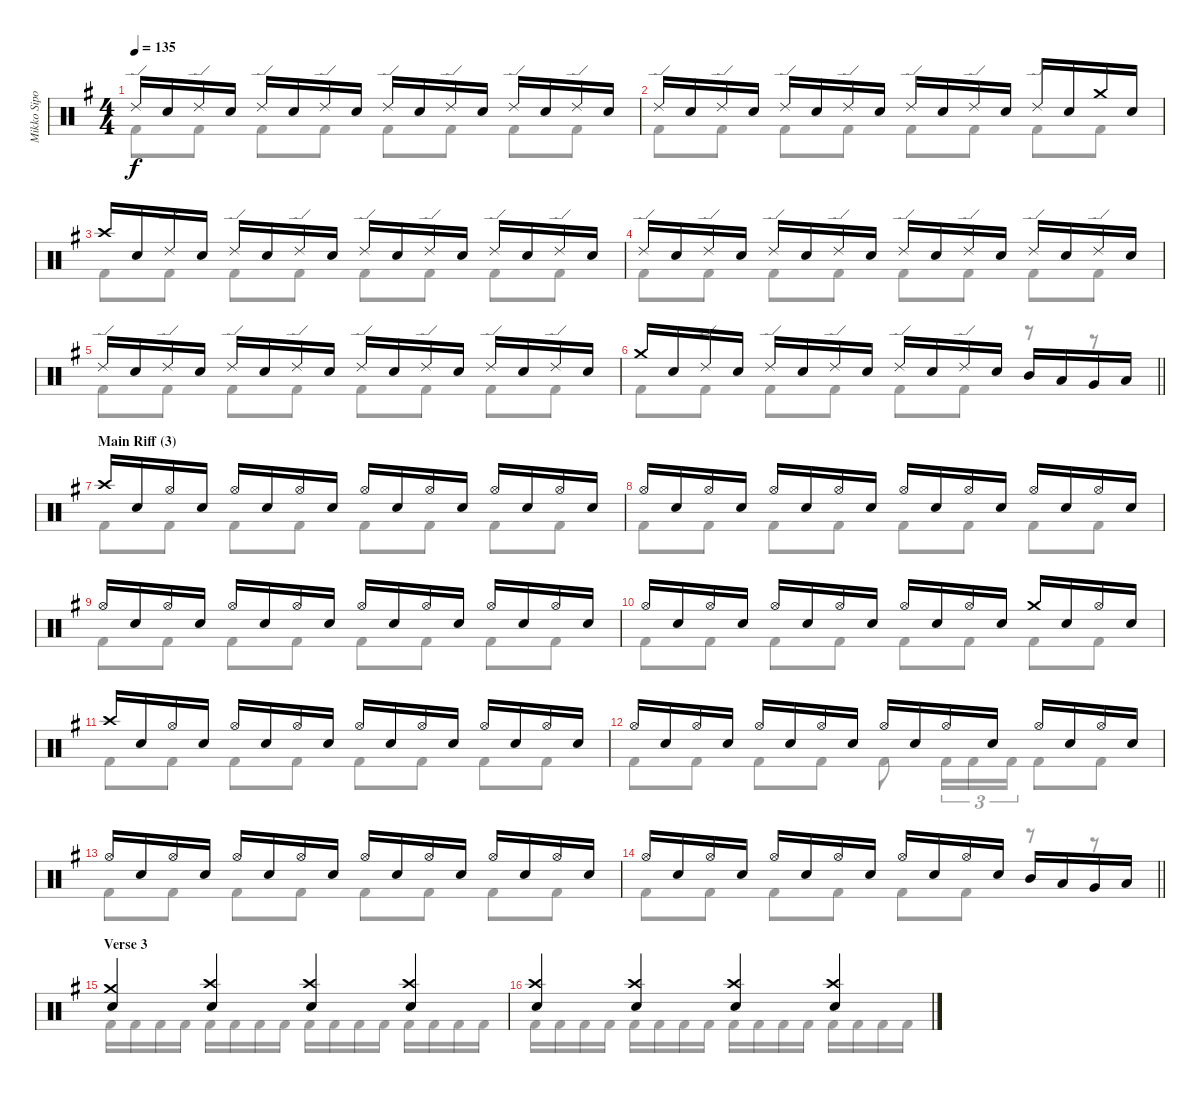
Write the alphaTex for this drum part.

\track ("Mikko Sipola (drums)" "Mikko Sipo") {instrument percussion}
\staff {score}
\articulation defaults
\voice
\ts (4 4)
\tempo 135
\clef neutral
\ks eminor "Ride (edge) 2".16{dy f} "Electric Snare (hit)".16 "Ride (edge) 2".16 "Electric Snare (hit)".16 "Ride (edge) 2".16 "Electric Snare (hit)".16 "Ride (edge) 2".16 "Electric Snare (hit)".16 "Ride (edge) 2".16 "Electric Snare (hit)".16 "Ride (edge) 2".16 "Electric Snare (hit)".16 "Ride (edge) 2".16 "Electric Snare (hit)".16 "Ride (edge) 2".16 "Electric Snare (hit)".16
|
"Ride (edge) 2".16 "Electric Snare (hit)".16 "Ride (edge) 2".16 "Electric Snare (hit)".16 "Ride (edge) 2".16 "Electric Snare (hit)".16 "Ride (edge) 2".16 "Electric Snare (hit)".16 "Ride (edge) 2".16 "Electric Snare (hit)".16 "Ride (edge) 2".16 "Electric Snare (hit)".16 "Ride (edge) 2".16 "Electric Snare (hit)".16 "Crash medium (hit)".16 "Electric Snare (hit)".16 |
"Crash high (hit)".16 "Electric Snare (hit)".16 "Ride (edge) 2".16 "Electric Snare (hit)".16 "Ride (edge) 2".16 "Electric Snare (hit)".16 "Ride (edge) 2".16 "Electric Snare (hit)".16 "Ride (edge) 2".16 "Electric Snare (hit)".16 "Ride (edge) 2".16 "Electric Snare (hit)".16 "Ride (edge) 2".16 "Electric Snare (hit)".16 "Ride (edge) 2".16 "Electric Snare (hit)".16 |
"Ride (edge) 2".16 "Electric Snare (hit)".16 "Ride (edge) 2".16 "Electric Snare (hit)".16 "Ride (edge) 2".16 "Electric Snare (hit)".16 "Ride (edge) 2".16 "Electric Snare (hit)".16 "Ride (edge) 2".16 "Electric Snare (hit)".16 "Ride (edge) 2".16 "Electric Snare (hit)".16 "Ride (edge) 2".16 "Electric Snare (hit)".16 "Ride (edge) 2".16 "Electric Snare (hit)".16 |
"Ride (edge) 2".16 "Electric Snare (hit)".16 "Ride (edge) 2".16 "Electric Snare (hit)".16 "Ride (edge) 2".16 "Electric Snare (hit)".16 "Ride (edge) 2".16 "Electric Snare (hit)".16 "Ride (edge) 2".16 "Electric Snare (hit)".16 "Ride (edge) 2".16 "Electric Snare (hit)".16 "Ride (edge) 2".16 "Electric Snare (hit)".16 "Ride (edge) 2".16 "Electric Snare (hit)".16 |
\barLineRight lightlight "Crash medium (hit)".16 "Electric Snare (hit)".16 "Ride (edge) 2".16 "Electric Snare (hit)".16 "Ride (edge) 2".16 "Electric Snare (hit)".16 "Ride (edge) 2".16 "Electric Snare (hit)".16 "Ride (edge) 2".16 "Electric Snare (hit)".16 "Ride (edge) 2".16 "Electric Snare (hit)".16 "Mid Tom (hit)".16 "Low Tom (hit)".16 "Very Low Tom (hit)".16 "Low Floor Tom (hit)".16
|
\section ("" "Main Riff (3)")
"Crash high (hit)".16 "Electric Snare (hit)".16 "Hi-Hat (open)".16 "Electric Snare (hit)".16 "Hi-Hat (open)".16 "Electric Snare (hit)".16 "Hi-Hat (open)".16 "Electric Snare (hit)".16 "Hi-Hat (open)".16 "Electric Snare (hit)".16 "Hi-Hat (open)".16 "Electric Snare (hit)".16 "Hi-Hat (open)".16 "Electric Snare (hit)".16 "Hi-Hat (open)".16 "Electric Snare (hit)".16 |
"Hi-Hat (open)".16 "Electric Snare (hit)".16 "Hi-Hat (open)".16 "Electric Snare (hit)".16 "Hi-Hat (open)".16 "Electric Snare (hit)".16 "Hi-Hat (open)".16 "Electric Snare (hit)".16 "Hi-Hat (open)".16 "Electric Snare (hit)".16 "Hi-Hat (open)".16 "Electric Snare (hit)".16 "Hi-Hat (open)".16 "Electric Snare (hit)".16 "Hi-Hat (open)".16 "Electric Snare (hit)".16 |
"Hi-Hat (open)".16 "Electric Snare (hit)".16 "Hi-Hat (open)".16 "Electric Snare (hit)".16 "Hi-Hat (open)".16 "Electric Snare (hit)".16 "Hi-Hat (open)".16 "Electric Snare (hit)".16 "Hi-Hat (open)".16 "Electric Snare (hit)".16 "Hi-Hat (open)".16 "Electric Snare (hit)".16 "Hi-Hat (open)".16 "Electric Snare (hit)".16 "Hi-Hat (open)".16 "Electric Snare (hit)".16 |
"Hi-Hat (open)".16 "Electric Snare (hit)".16 "Hi-Hat (open)".16 "Electric Snare (hit)".16 "Hi-Hat (open)".16 "Electric Snare (hit)".16 "Hi-Hat (open)".16 "Electric Snare (hit)".16 "Hi-Hat (open)".16 "Electric Snare (hit)".16 "Hi-Hat (open)".16 "Electric Snare (hit)".16 "Crash medium (hit)".16 "Electric Snare (hit)".16 "Hi-Hat (open)".16 "Electric Snare (hit)".16 |
"Crash high (hit)".16 "Electric Snare (hit)".16 "Hi-Hat (open)".16 "Electric Snare (hit)".16 "Hi-Hat (open)".16 "Electric Snare (hit)".16 "Hi-Hat (open)".16 "Electric Snare (hit)".16 "Hi-Hat (open)".16 "Electric Snare (hit)".16 "Hi-Hat (open)".16 "Electric Snare (hit)".16 "Hi-Hat (open)".16 "Electric Snare (hit)".16 "Hi-Hat (open)".16 "Electric Snare (hit)".16 |
"Hi-Hat (open)".16 "Electric Snare (hit)".16 "Hi-Hat (open)".16 "Electric Snare (hit)".16 "Hi-Hat (open)".16 "Electric Snare (hit)".16 "Hi-Hat (open)".16 "Electric Snare (hit)".16 "Hi-Hat (open)".16 "Electric Snare (hit)".16 "Hi-Hat (open)".16 "Electric Snare (hit)".16 "Hi-Hat (open)".16 "Electric Snare (hit)".16 "Hi-Hat (open)".16 "Electric Snare (hit)".16 |
"Hi-Hat (open)".16 "Electric Snare (hit)".16 "Hi-Hat (open)".16 "Electric Snare (hit)".16 "Hi-Hat (open)".16 "Electric Snare (hit)".16 "Hi-Hat (open)".16 "Electric Snare (hit)".16 "Hi-Hat (open)".16 "Electric Snare (hit)".16 "Hi-Hat (open)".16 "Electric Snare (hit)".16 "Hi-Hat (open)".16 "Electric Snare (hit)".16 "Hi-Hat (open)".16 "Electric Snare (hit)".16 |
\barLineRight lightlight "Hi-Hat (open)".16 "Electric Snare (hit)".16 "Hi-Hat (open)".16 "Electric Snare (hit)".16 "Hi-Hat (open)".16 "Electric Snare (hit)".16 "Hi-Hat (open)".16 "Electric Snare (hit)".16 "Hi-Hat (open)".16 "Electric Snare (hit)".16 "Hi-Hat (open)".16 "Electric Snare (hit)".16 "Mid Tom (hit)".16 "Low Tom (hit)".16 "Very Low Tom (hit)".16 "Low Floor Tom (hit)".16
|
\section ("" "Verse 3")
("Electric Snare (hit)" "Crash medium (hit)").4 ("Electric Snare (hit)" "Crash high (hit)").4 ("Electric Snare (hit)" "Crash high (hit)").4 ("Electric Snare (hit)" "Crash high (hit)").4 |
("Electric Snare (hit)" "Crash high (hit)").4 ("Electric Snare (hit)" "Crash high (hit)").4 ("Electric Snare (hit)" "Crash high (hit)").4 ("Electric Snare (hit)" "Crash high (hit)").4
\voice
\clef neutral
\ottava regular
\simile none
\ks eminor "Kick (hit) 2".8{dy f} "Kick (hit) 2".8 "Kick (hit) 2".8 "Kick (hit) 2".8 "Kick (hit) 2".8 "Kick (hit) 2".8 "Kick (hit) 2".8 "Kick (hit) 2".8
|
"Kick (hit) 2".8 "Kick (hit) 2".8 "Kick (hit) 2".8 "Kick (hit) 2".8 "Kick (hit) 2".8 "Kick (hit) 2".8 "Kick (hit) 2".8 "Kick (hit) 2".8 |
"Kick (hit) 2".8 "Kick (hit) 2".8 "Kick (hit) 2".8 "Kick (hit) 2".8 "Kick (hit) 2".8 "Kick (hit) 2".8 "Kick (hit) 2".8 "Kick (hit) 2".8 |
"Kick (hit) 2".8 "Kick (hit) 2".8 "Kick (hit) 2".8 "Kick (hit) 2".8 "Kick (hit) 2".8 "Kick (hit) 2".8 "Kick (hit) 2".8 "Kick (hit) 2".8 |
"Kick (hit) 2".8 "Kick (hit) 2".8 "Kick (hit) 2".8 "Kick (hit) 2".8 "Kick (hit) 2".8 "Kick (hit) 2".8 "Kick (hit) 2".8 "Kick (hit) 2".8 |
\barLineRight lightlight "Kick (hit) 2".8 "Kick (hit) 2".8 "Kick (hit) 2".8 "Kick (hit) 2".8 "Kick (hit) 2".8 "Kick (hit) 2".8
r.8 r.8 |
"Kick (hit) 2".8 "Kick (hit) 2".8 "Kick (hit) 2".8 "Kick (hit) 2".8 "Kick (hit) 2".8 "Kick (hit) 2".8 "Kick (hit) 2".8 "Kick (hit) 2".8 |
"Kick (hit) 2".8 "Kick (hit) 2".8 "Kick (hit) 2".8 "Kick (hit) 2".8 "Kick (hit) 2".8 "Kick (hit) 2".8 "Kick (hit) 2".8 "Kick (hit) 2".8 |
"Kick (hit) 2".8 "Kick (hit) 2".8 "Kick (hit) 2".8 "Kick (hit) 2".8 "Kick (hit) 2".8 "Kick (hit) 2".8 "Kick (hit) 2".8 "Kick (hit) 2".8 |
"Kick (hit) 2".8 "Kick (hit) 2".8 "Kick (hit) 2".8 "Kick (hit) 2".8 "Kick (hit) 2".8 "Kick (hit) 2".8 "Kick (hit) 2".8 "Kick (hit) 2".8 |
"Kick (hit) 2".8 "Kick (hit) 2".8 "Kick (hit) 2".8 "Kick (hit) 2".8 "Kick (hit) 2".8 "Kick (hit) 2".8 "Kick (hit) 2".8 "Kick (hit) 2".8 |
"Kick (hit) 2".8 "Kick (hit) 2".8 "Kick (hit) 2".8 "Kick (hit) 2".8 "Kick (hit) 2".8 "Kick (hit) 2".16{tu (3 2)} "Kick (hit) 2".16{tu (3 2)} "Kick (hit) 2".16{tu (3 2)} "Kick (hit) 2".8 "Kick (hit) 2".8 |
"Kick (hit) 2".8 "Kick (hit) 2".8 "Kick (hit) 2".8 "Kick (hit) 2".8 "Kick (hit) 2".8 "Kick (hit) 2".8 "Kick (hit) 2".8 "Kick (hit) 2".8 |
\barLineRight lightlight "Kick (hit) 2".8 "Kick (hit) 2".8 "Kick (hit) 2".8 "Kick (hit) 2".8 "Kick (hit) 2".8 "Kick (hit) 2".8
r.8 r.8 |
"Kick (hit) 2".16 "Kick (hit) 2".16 "Kick (hit) 2".16 "Kick (hit) 2".16 "Kick (hit) 2".16 "Kick (hit) 2".16 "Kick (hit) 2".16 "Kick (hit) 2".16 "Kick (hit) 2".16 "Kick (hit) 2".16 "Kick (hit) 2".16 "Kick (hit) 2".16 "Kick (hit) 2".16 "Kick (hit) 2".16 "Kick (hit) 2".16 "Kick (hit) 2".16 |
"Kick (hit) 2".16 "Kick (hit) 2".16 "Kick (hit) 2".16 "Kick (hit) 2".16 "Kick (hit) 2".16 "Kick (hit) 2".16 "Kick (hit) 2".16 "Kick (hit) 2".16 "Kick (hit) 2".16 "Kick (hit) 2".16 "Kick (hit) 2".16 "Kick (hit) 2".16 "Kick (hit) 2".16 "Kick (hit) 2".16 "Kick (hit) 2".16 "Kick (hit) 2".16
